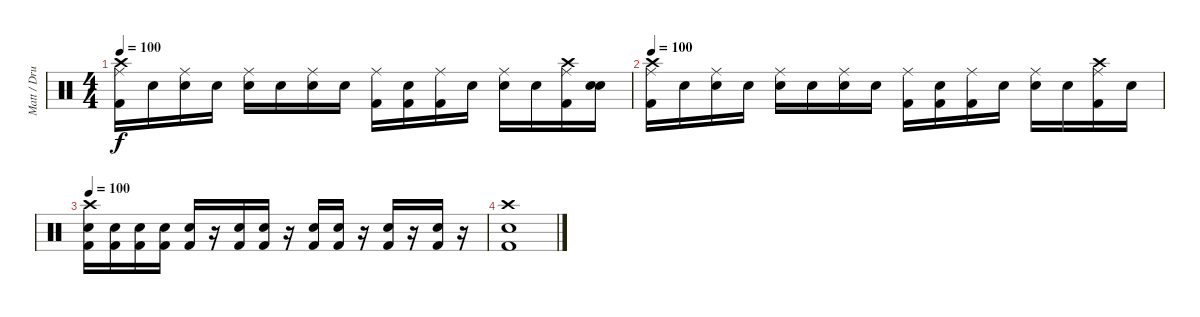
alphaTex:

\track ("Matt / Drums" "Matt / Dru") {instrument percussion}
\staff {score}
\articulation defaults
\ts (4 4)
\tempo 100
\clef neutral
\ks c
("Crash high (hit)" "Ride (middle)" "Kick (hit) 2").16{dy f} "Snare (hit)".16 ("Ride (middle)" "Snare (hit)").16 "Snare (hit)".16 ("Ride (middle)" "Snare (hit) 2").16 "Snare (hit)".16 ("Ride (middle)" "Snare (hit)").16 "Snare (hit)".16 ("Ride (middle)" "Kick (hit) 2").16 ("Snare (hit)" "Kick (hit) 2").16 ("Ride (middle)" "Kick (hit) 2").16 "Snare (hit)".16 ("Ride (middle)" "Snare (hit) 2").16 "Snare (hit)".16 ("Crash high (hit)" "Ride (middle)" "Kick (hit) 2").16 ("Snare (hit)" "Snare (hit) 2").16 |
\tempo 100
("Crash high (hit)" "Ride (middle)" "Kick (hit) 2").16 "Snare (hit)".16 ("Ride (middle)" "Snare (hit)").16 "Snare (hit)".16 ("Ride (middle)" "Snare (hit) 2").16 "Snare (hit)".16 ("Ride (middle)" "Snare (hit)").16 "Snare (hit)".16 ("Ride (middle)" "Kick (hit) 2").16 ("Snare (hit)" "Kick (hit) 2").16 ("Ride (middle)" "Kick (hit) 2").16 "Snare (hit)".16 ("Ride (middle)" "Snare (hit) 2").16 "Snare (hit)".16 ("Crash high (hit)" "Ride (middle)" "Kick (hit) 2").16 "Snare (hit) 2".16 |
\tempo 100
("Crash high (hit)" "Snare (hit) 2" "Kick (hit) 2").16 ("Snare (hit) 2" "Kick (hit) 2").16 ("Snare (hit) 2" "Kick (hit) 2").16 ("Snare (hit) 2" "Kick (hit) 2").16 ("Snare (hit) 2" "Kick (hit) 2").16 r.16 ("Snare (hit) 2" "Kick (hit) 2").16 ("Snare (hit) 2" "Kick (hit) 2").16 r.16 ("Snare (hit) 2" "Kick (hit) 2").16 ("Snare (hit) 2" "Kick (hit) 2").16 r.16 ("Kick (hit) 2" "Snare (hit) 2").16 r.16 ("Snare (hit) 2" "Kick (hit) 2").16 r.16 |
("Crash high (hit)" "Snare (hit) 2" "Kick (hit) 2").1
